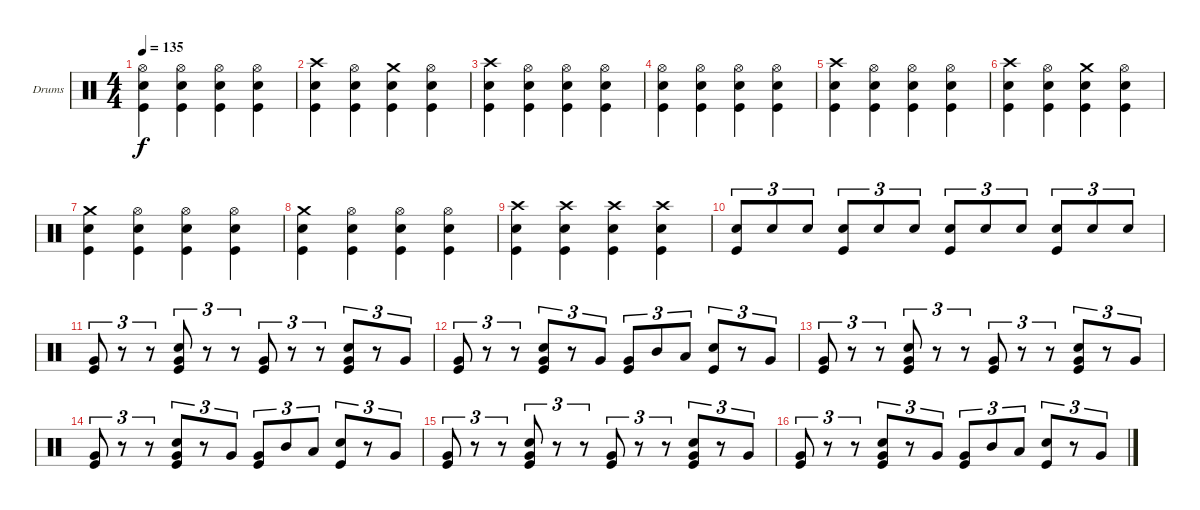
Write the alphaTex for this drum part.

\bracketExtendMode groupsimilarinstruments
\firstSystemTrackNameOrientation horizontal
\otherSystemsTrackNameOrientation horizontal
\track ("Drumkit (Christoph)" "Drums") {instrument percussion}
\staff {score}
\articulation defaults
\ts (4 4)
\tempo 135
\clef neutral
\ks c
("Hi-Hat (open)" "Snare (hit) 2" "Kick (hit)").4{dy f} ("Hi-Hat (open)" "Snare (hit) 2" "Kick (hit)").4 ("Hi-Hat (open)" "Snare (hit) 2" "Kick (hit)").4 ("Hi-Hat (open)" "Snare (hit) 2" "Kick (hit)").4 |
("Crash high (hit)" "Snare (hit) 2" "Kick (hit)").4 ("Hi-Hat (open)" "Snare (hit) 2" "Kick (hit)").4 ("Crash medium (hit)" "Snare (hit) 2" "Kick (hit)").4 ("Hi-Hat (open)" "Snare (hit) 2" "Kick (hit)").4 |
("Crash high (hit)" "Snare (hit) 2" "Kick (hit)").4 ("Hi-Hat (open)" "Snare (hit) 2" "Kick (hit)").4 ("Hi-Hat (open)" "Snare (hit) 2" "Kick (hit)").4 ("Hi-Hat (open)" "Snare (hit) 2" "Kick (hit)").4 |
("Hi-Hat (open)" "Snare (hit) 2" "Kick (hit)").4 ("Hi-Hat (open)" "Snare (hit) 2" "Kick (hit)").4 ("Hi-Hat (open)" "Snare (hit) 2" "Kick (hit)").4 ("Hi-Hat (open)" "Snare (hit) 2" "Kick (hit)").4 |
("Crash high (hit)" "Snare (hit) 2" "Kick (hit)").4 ("Hi-Hat (open)" "Snare (hit) 2" "Kick (hit)").4 ("Hi-Hat (open)" "Snare (hit) 2" "Kick (hit)").4 ("Hi-Hat (open)" "Snare (hit) 2" "Kick (hit)").4 |
("Crash high (hit)" "Snare (hit) 2" "Kick (hit)").4 ("Hi-Hat (open)" "Snare (hit) 2" "Kick (hit)").4 ("Crash medium (hit)" "Snare (hit) 2" "Kick (hit)").4 ("Hi-Hat (open)" "Snare (hit) 2" "Kick (hit)").4 |
("Crash medium (hit)" "Snare (hit) 2" "Kick (hit)").4 ("Hi-Hat (open)" "Snare (hit) 2" "Kick (hit)").4 ("Hi-Hat (open)" "Snare (hit) 2" "Kick (hit)").4 ("Hi-Hat (open)" "Snare (hit) 2" "Kick (hit)").4 |
("Crash medium (hit)" "Snare (hit) 2" "Kick (hit)").4 ("Hi-Hat (open)" "Snare (hit) 2" "Kick (hit)").4 ("Hi-Hat (open)" "Snare (hit) 2" "Kick (hit)").4 ("Hi-Hat (open)" "Snare (hit) 2" "Kick (hit)").4 |
("Crash high (hit)" "Snare (hit) 2" "Kick (hit)").4 ("Crash high (hit)" "Snare (hit) 2" "Kick (hit)").4 ("Crash high (hit)" "Snare (hit) 2" "Kick (hit)").4 ("Crash high (hit)" "Snare (hit) 2" "Kick (hit)").4 |
("Snare (hit) 2" "Kick (hit)").8{tu (3 2)} "Snare (hit) 2".8{tu (3 2)} "Snare (hit) 2".8{tu (3 2)} ("Snare (hit) 2" "Kick (hit)").8{tu (3 2)} "Snare (hit) 2".8{tu (3 2)} "Snare (hit) 2".8{tu (3 2)} ("Snare (hit) 2" "Kick (hit)").8{tu (3 2)} "Snare (hit) 2".8{tu (3 2)} "Snare (hit) 2".8{tu (3 2)} ("Snare (hit) 2" "Kick (hit)").8{tu (3 2)} "Snare (hit) 2".8{tu (3 2)} "Snare (hit) 2".8{tu (3 2)} |
("Very Low Tom (hit)" "Kick (hit)").8{tu (3 2)} r.8{tu (3 2)} r.8{tu (3 2)} ("Snare (hit) 2" "Very Low Tom (hit)" "Kick (hit)").8{tu (3 2)} r.8{tu (3 2)} r.8{tu (3 2)} ("Very Low Tom (hit)" "Kick (hit)").8{tu (3 2)} r.8{tu (3 2)} r.8{tu (3 2)} ("Snare (hit) 2" "Very Low Tom (hit)" "Kick (hit)").8{tu (3 2)} r.8{tu (3 2)} "Very Low Tom (hit)".8{tu (3 2)} |
("Very Low Tom (hit)" "Kick (hit)").8{tu (3 2)} r.8{tu (3 2)} r.8{tu (3 2)} ("Snare (hit) 2" "Very Low Tom (hit)" "Kick (hit)").8{tu (3 2)} r.8{tu (3 2)} "Very Low Tom (hit)".8{tu (3 2)} ("Very Low Tom (hit)" "Kick (hit)").8{tu (3 2)} "Mid Tom (hit)".8{tu (3 2)} "Low Tom (hit)".8{tu (3 2)} ("Snare (hit) 2" "Kick (hit)").8{tu (3 2)} r.8{tu (3 2)} "Very Low Tom (hit)".8{tu (3 2)} |
("Very Low Tom (hit)" "Kick (hit)").8{tu (3 2)} r.8{tu (3 2)} r.8{tu (3 2)} ("Snare (hit) 2" "Very Low Tom (hit)" "Kick (hit)").8{tu (3 2)} r.8{tu (3 2)} r.8{tu (3 2)} ("Very Low Tom (hit)" "Kick (hit)").8{tu (3 2)} r.8{tu (3 2)} r.8{tu (3 2)} ("Snare (hit) 2" "Very Low Tom (hit)" "Kick (hit)").8{tu (3 2)} r.8{tu (3 2)} "Very Low Tom (hit)".8{tu (3 2)} |
("Very Low Tom (hit)" "Kick (hit)").8{tu (3 2)} r.8{tu (3 2)} r.8{tu (3 2)} ("Snare (hit) 2" "Very Low Tom (hit)" "Kick (hit)").8{tu (3 2)} r.8{tu (3 2)} "Very Low Tom (hit)".8{tu (3 2)} ("Very Low Tom (hit)" "Kick (hit)").8{tu (3 2)} "Mid Tom (hit)".8{tu (3 2)} "Low Tom (hit)".8{tu (3 2)} ("Snare (hit) 2" "Kick (hit)").8{tu (3 2)} r.8{tu (3 2)} "Very Low Tom (hit)".8{tu (3 2)} |
("Very Low Tom (hit)" "Kick (hit)").8{tu (3 2)} r.8{tu (3 2)} r.8{tu (3 2)} ("Snare (hit) 2" "Very Low Tom (hit)" "Kick (hit)").8{tu (3 2)} r.8{tu (3 2)} r.8{tu (3 2)} ("Very Low Tom (hit)" "Kick (hit)").8{tu (3 2)} r.8{tu (3 2)} r.8{tu (3 2)} ("Snare (hit) 2" "Very Low Tom (hit)" "Kick (hit)").8{tu (3 2)} r.8{tu (3 2)} "Very Low Tom (hit)".8{tu (3 2)} |
("Very Low Tom (hit)" "Kick (hit)").8{tu (3 2)} r.8{tu (3 2)} r.8{tu (3 2)} ("Snare (hit) 2" "Very Low Tom (hit)" "Kick (hit)").8{tu (3 2)} r.8{tu (3 2)} "Very Low Tom (hit)".8{tu (3 2)} ("Very Low Tom (hit)" "Kick (hit)").8{tu (3 2)} "Mid Tom (hit)".8{tu (3 2)} "Low Tom (hit)".8{tu (3 2)} ("Snare (hit) 2" "Kick (hit)").8{tu (3 2)} r.8{tu (3 2)} "Very Low Tom (hit)".8{tu (3 2)}
